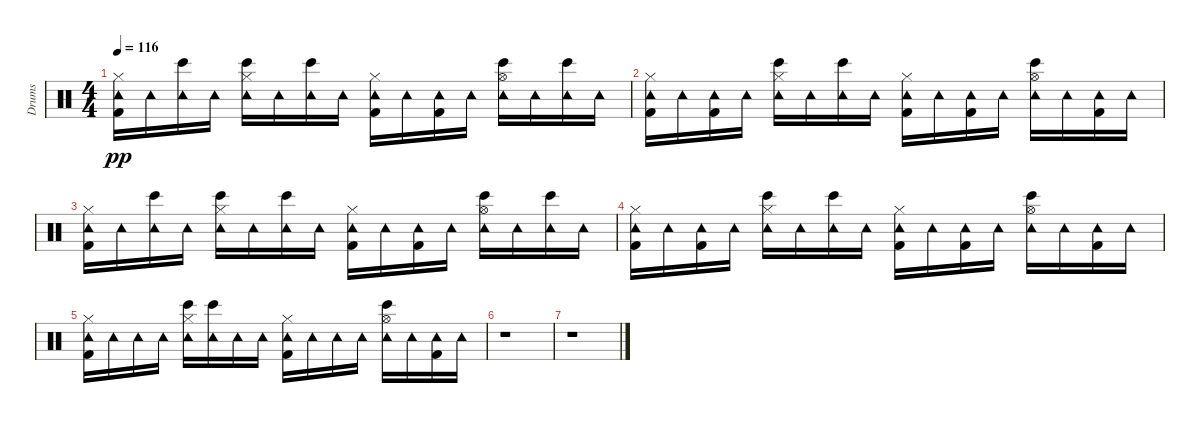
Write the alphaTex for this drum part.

\track ("Drums" "Drums") {instrument percussion}
\staff {score}
\articulation defaults
\ts (4 4)
\tempo 116
\clef neutral
\ks c
("Hi-Hat (closed)" "Kick (hit) 2" "Tambourine (hit)").16{dy pp} "Tambourine (hit)".16 ("Bongo High (hit)" "Tambourine (hit)").16 "Tambourine (hit)".16 ("Hi-Hat (closed)" "Bongo High (hit)" "Tambourine (hit)").16 "Tambourine (hit)".16 ("Bongo High (hit)" "Tambourine (hit)").16 "Tambourine (hit)".16 ("Hi-Hat (closed)" "Kick (hit) 2" "Tambourine (hit)").16 "Tambourine (hit)".16 ("Kick (hit) 2" "Tambourine (hit)").16 "Tambourine (hit)".16 ("Hi-Hat (open)" "Bongo High (hit)" "Tambourine (hit)").16 "Tambourine (hit)".16 ("Bongo High (hit)" "Tambourine (hit)").16 "Tambourine (hit)".16 |
("Hi-Hat (closed)" "Kick (hit) 2" "Tambourine (hit)").16 "Tambourine (hit)".16 ("Kick (hit) 2" "Tambourine (hit)").16 "Tambourine (hit)".16 ("Hi-Hat (closed)" "Bongo High (hit)" "Tambourine (hit)").16 "Tambourine (hit)".16 ("Bongo High (hit)" "Tambourine (hit)").16 "Tambourine (hit)".16 ("Hi-Hat (closed)" "Kick (hit) 2" "Tambourine (hit)").16 "Tambourine (hit)".16 ("Kick (hit) 2" "Tambourine (hit)").16 "Tambourine (hit)".16 ("Hi-Hat (open)" "Bongo High (hit)" "Tambourine (hit)").16 "Tambourine (hit)".16 ("Kick (hit) 2" "Tambourine (hit)").16 "Tambourine (hit)".16 |
("Hi-Hat (closed)" "Kick (hit) 2" "Tambourine (hit)").16{volume 10} "Tambourine (hit)".16 ("Bongo High (hit)" "Tambourine (hit)").16 "Tambourine (hit)".16 ("Hi-Hat (closed)" "Bongo High (hit)" "Tambourine (hit)").16 "Tambourine (hit)".16 ("Bongo High (hit)" "Tambourine (hit)").16 "Tambourine (hit)".16 ("Hi-Hat (closed)" "Kick (hit) 2" "Tambourine (hit)").16 "Tambourine (hit)".16 ("Kick (hit) 2" "Tambourine (hit)").16 "Tambourine (hit)".16 ("Hi-Hat (open)" "Bongo High (hit)" "Tambourine (hit)").16 "Tambourine (hit)".16 ("Bongo High (hit)" "Tambourine (hit)").16 "Tambourine (hit)".16 |
("Hi-Hat (closed)" "Kick (hit) 2" "Tambourine (hit)").16 "Tambourine (hit)".16 ("Kick (hit) 2" "Tambourine (hit)").16 "Tambourine (hit)".16 ("Hi-Hat (closed)" "Bongo High (hit)" "Tambourine (hit)").16 "Tambourine (hit)".16 ("Bongo High (hit)" "Tambourine (hit)").16 "Tambourine (hit)".16 ("Hi-Hat (closed)" "Kick (hit) 2" "Tambourine (hit)").16 "Tambourine (hit)".16 ("Kick (hit) 2" "Tambourine (hit)").16 "Tambourine (hit)".16 ("Hi-Hat (open)" "Bongo High (hit)" "Tambourine (hit)").16 "Tambourine (hit)".16 ("Kick (hit) 2" "Tambourine (hit)").16 "Tambourine (hit)".16 |
("Hi-Hat (closed)" "Kick (hit) 2" "Tambourine (hit)").16 "Tambourine (hit)".16 "Tambourine (hit)".16 "Tambourine (hit)".16 ("Hi-Hat (closed)" "Bongo High (hit)" "Tambourine (hit)").16 ("Bongo High (hit)" "Tambourine (hit)").16 "Tambourine (hit)".16 "Tambourine (hit)".16 ("Hi-Hat (closed)" "Kick (hit) 2" "Tambourine (hit)").16 "Tambourine (hit)".16 "Tambourine (hit)".16 "Tambourine (hit)".16 ("Hi-Hat (open)" "Bongo High (hit)" "Tambourine (hit)").16 "Tambourine (hit)".16 ("Kick (hit) 2" "Tambourine (hit)").16 "Tambourine (hit)".16 |
r.1 |
r.1
